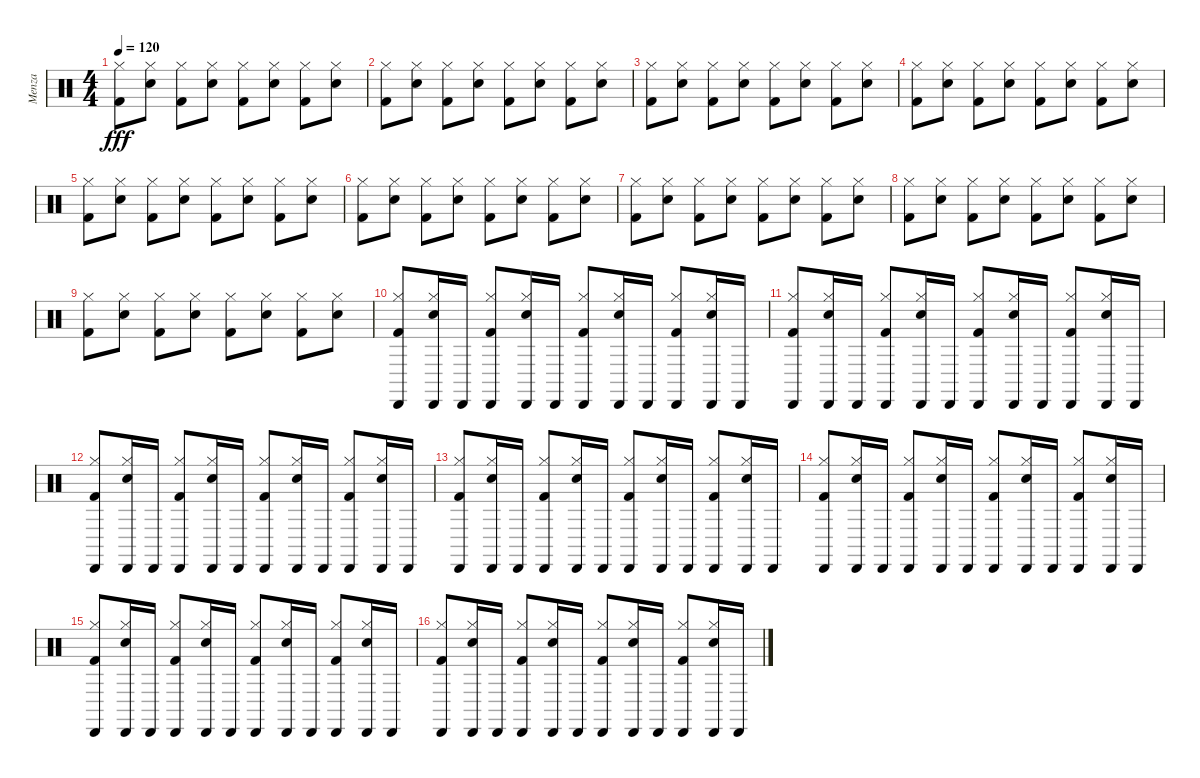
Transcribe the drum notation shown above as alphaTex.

\track ("Menza" "Menza") {instrument percussion}
\staff {score}
\articulation defaults
\ts (4 4)
\tempo 120
\clef neutral
\ks c
("Hi-Hat (closed)" "Kick (hit) 2").8{dy fff} ("Hi-Hat (closed)" "Snare (hit) 2").8 ("Hi-Hat (closed)" "Kick (hit) 2").8 ("Hi-Hat (closed)" "Snare (hit) 2").8 ("Hi-Hat (closed)" "Kick (hit) 2").8 ("Hi-Hat (closed)" "Snare (hit) 2").8 ("Hi-Hat (closed)" "Kick (hit) 2").8 ("Hi-Hat (closed)" "Snare (hit) 2").8 |
("Hi-Hat (closed)" "Kick (hit) 2").8 ("Hi-Hat (closed)" "Snare (hit) 2").8 ("Hi-Hat (closed)" "Kick (hit) 2").8 ("Hi-Hat (closed)" "Snare (hit) 2").8 ("Hi-Hat (closed)" "Kick (hit) 2").8 ("Hi-Hat (closed)" "Snare (hit) 2").8 ("Hi-Hat (closed)" "Kick (hit) 2").8 ("Hi-Hat (closed)" "Snare (hit) 2").8 |
("Hi-Hat (closed)" "Kick (hit) 2").8 ("Hi-Hat (closed)" "Snare (hit) 2").8 ("Hi-Hat (closed)" "Kick (hit) 2").8 ("Hi-Hat (closed)" "Snare (hit) 2").8 ("Hi-Hat (closed)" "Kick (hit) 2").8 ("Hi-Hat (closed)" "Snare (hit) 2").8 ("Hi-Hat (closed)" "Kick (hit) 2").8 ("Hi-Hat (closed)" "Snare (hit) 2").8 |
("Hi-Hat (closed)" "Kick (hit) 2").8 ("Hi-Hat (closed)" "Snare (hit) 2").8 ("Hi-Hat (closed)" "Kick (hit) 2").8 ("Hi-Hat (closed)" "Snare (hit) 2").8 ("Hi-Hat (closed)" "Kick (hit) 2").8 ("Hi-Hat (closed)" "Snare (hit) 2").8 ("Hi-Hat (closed)" "Kick (hit) 2").8 ("Hi-Hat (closed)" "Snare (hit) 2").8 |
("Hi-Hat (closed)" "Kick (hit) 2").8 ("Hi-Hat (closed)" "Snare (hit) 2").8 ("Hi-Hat (closed)" "Kick (hit) 2").8 ("Hi-Hat (closed)" "Snare (hit) 2").8 ("Hi-Hat (closed)" "Kick (hit) 2").8 ("Hi-Hat (closed)" "Snare (hit) 2").8 ("Hi-Hat (closed)" "Kick (hit) 2").8 ("Hi-Hat (closed)" "Snare (hit) 2").8 |
("Hi-Hat (closed)" "Kick (hit) 2").8 ("Hi-Hat (closed)" "Snare (hit) 2").8 ("Hi-Hat (closed)" "Kick (hit) 2").8 ("Hi-Hat (closed)" "Snare (hit) 2").8 ("Hi-Hat (closed)" "Kick (hit) 2").8 ("Hi-Hat (closed)" "Snare (hit) 2").8 ("Hi-Hat (closed)" "Kick (hit) 2").8 ("Hi-Hat (closed)" "Snare (hit) 2").8 |
("Hi-Hat (closed)" "Kick (hit) 2").8 ("Hi-Hat (closed)" "Snare (hit) 2").8 ("Hi-Hat (closed)" "Kick (hit) 2").8 ("Hi-Hat (closed)" "Snare (hit) 2").8 ("Hi-Hat (closed)" "Kick (hit) 2").8 ("Hi-Hat (closed)" "Snare (hit) 2").8 ("Hi-Hat (closed)" "Kick (hit) 2").8 ("Hi-Hat (closed)" "Snare (hit) 2").8 |
("Hi-Hat (closed)" "Kick (hit) 2").8 ("Hi-Hat (closed)" "Snare (hit) 2").8 ("Hi-Hat (closed)" "Kick (hit) 2").8 ("Hi-Hat (closed)" "Snare (hit) 2").8 ("Hi-Hat (closed)" "Kick (hit) 2").8 ("Hi-Hat (closed)" "Snare (hit) 2").8 ("Hi-Hat (closed)" "Kick (hit) 2").8 ("Hi-Hat (closed)" "Snare (hit) 2").8 |
("Hi-Hat (closed)" "Kick (hit) 2").8 ("Hi-Hat (closed)" "Snare (hit) 2").8 ("Hi-Hat (closed)" "Kick (hit) 2").8 ("Hi-Hat (closed)" "Snare (hit) 2").8 ("Hi-Hat (closed)" "Kick (hit) 2").8 ("Hi-Hat (closed)" "Snare (hit) 2").8 ("Hi-Hat (closed)" "Kick (hit) 2").8 ("Hi-Hat (closed)" "Snare (hit) 2").8 |
("Cabasa (hit)" "Hi-Hat (closed)" "Kick (hit) 2").8 ("Cabasa (hit)" "Hi-Hat (closed)" "Snare (hit) 2").16 "Cabasa (hit)".16 ("Cabasa (hit)" "Hi-Hat (closed)" "Kick (hit) 2").8 ("Cabasa (hit)" "Hi-Hat (closed)" "Snare (hit) 2").16 "Cabasa (hit)".16 ("Cabasa (hit)" "Hi-Hat (closed)" "Kick (hit) 2").8 ("Cabasa (hit)" "Hi-Hat (closed)" "Snare (hit) 2").16 "Cabasa (hit)".16 ("Cabasa (hit)" "Hi-Hat (closed)" "Kick (hit) 2").8 ("Cabasa (hit)" "Hi-Hat (closed)" "Snare (hit) 2").16 "Cabasa (hit)".16 |
("Cabasa (hit)" "Hi-Hat (closed)" "Kick (hit) 2").8 ("Cabasa (hit)" "Hi-Hat (closed)" "Snare (hit) 2").16 "Cabasa (hit)".16 ("Cabasa (hit)" "Hi-Hat (closed)" "Kick (hit) 2").8 ("Cabasa (hit)" "Hi-Hat (closed)" "Snare (hit) 2").16 "Cabasa (hit)".16 ("Cabasa (hit)" "Hi-Hat (closed)" "Kick (hit) 2").8 ("Cabasa (hit)" "Hi-Hat (closed)" "Snare (hit) 2").16 "Cabasa (hit)".16 ("Cabasa (hit)" "Hi-Hat (closed)" "Kick (hit) 2").8 ("Cabasa (hit)" "Hi-Hat (closed)" "Snare (hit) 2").16 "Cabasa (hit)".16 |
("Cabasa (hit)" "Hi-Hat (closed)" "Kick (hit) 2").8 ("Cabasa (hit)" "Hi-Hat (closed)" "Snare (hit) 2").16 "Cabasa (hit)".16 ("Cabasa (hit)" "Hi-Hat (closed)" "Kick (hit) 2").8 ("Cabasa (hit)" "Hi-Hat (closed)" "Snare (hit) 2").16 "Cabasa (hit)".16 ("Cabasa (hit)" "Hi-Hat (closed)" "Kick (hit) 2").8 ("Cabasa (hit)" "Hi-Hat (closed)" "Snare (hit) 2").16 "Cabasa (hit)".16 ("Cabasa (hit)" "Hi-Hat (closed)" "Kick (hit) 2").8 ("Cabasa (hit)" "Hi-Hat (closed)" "Snare (hit) 2").16 "Cabasa (hit)".16 |
("Cabasa (hit)" "Hi-Hat (closed)" "Kick (hit) 2").8 ("Cabasa (hit)" "Hi-Hat (closed)" "Snare (hit) 2").16 "Cabasa (hit)".16 ("Cabasa (hit)" "Hi-Hat (closed)" "Kick (hit) 2").8 ("Cabasa (hit)" "Hi-Hat (closed)" "Snare (hit) 2").16 "Cabasa (hit)".16 ("Cabasa (hit)" "Hi-Hat (closed)" "Kick (hit) 2").8 ("Cabasa (hit)" "Hi-Hat (closed)" "Snare (hit) 2").16 "Cabasa (hit)".16 ("Cabasa (hit)" "Hi-Hat (closed)" "Kick (hit) 2").8 ("Cabasa (hit)" "Hi-Hat (closed)" "Snare (hit) 2").16 "Cabasa (hit)".16 |
("Cabasa (hit)" "Hi-Hat (closed)" "Kick (hit) 2").8 ("Cabasa (hit)" "Hi-Hat (closed)" "Snare (hit) 2").16 "Cabasa (hit)".16 ("Cabasa (hit)" "Hi-Hat (closed)" "Kick (hit) 2").8 ("Cabasa (hit)" "Hi-Hat (closed)" "Snare (hit) 2").16 "Cabasa (hit)".16 ("Cabasa (hit)" "Hi-Hat (closed)" "Kick (hit) 2").8 ("Cabasa (hit)" "Hi-Hat (closed)" "Snare (hit) 2").16 "Cabasa (hit)".16 ("Cabasa (hit)" "Hi-Hat (closed)" "Kick (hit) 2").8 ("Cabasa (hit)" "Hi-Hat (closed)" "Snare (hit) 2").16 "Cabasa (hit)".16 |
("Cabasa (hit)" "Hi-Hat (closed)" "Kick (hit) 2").8 ("Cabasa (hit)" "Hi-Hat (closed)" "Snare (hit) 2").16 "Cabasa (hit)".16 ("Cabasa (hit)" "Hi-Hat (closed)" "Kick (hit) 2").8 ("Cabasa (hit)" "Hi-Hat (closed)" "Snare (hit) 2").16 "Cabasa (hit)".16 ("Cabasa (hit)" "Hi-Hat (closed)" "Kick (hit) 2").8 ("Cabasa (hit)" "Hi-Hat (closed)" "Snare (hit) 2").16 "Cabasa (hit)".16 ("Cabasa (hit)" "Hi-Hat (closed)" "Kick (hit) 2").8 ("Cabasa (hit)" "Hi-Hat (closed)" "Snare (hit) 2").16 "Cabasa (hit)".16 |
("Cabasa (hit)" "Hi-Hat (closed)" "Kick (hit) 2").8 ("Cabasa (hit)" "Hi-Hat (closed)" "Snare (hit) 2").16 "Cabasa (hit)".16 ("Cabasa (hit)" "Hi-Hat (closed)" "Kick (hit) 2").8 ("Cabasa (hit)" "Hi-Hat (closed)" "Snare (hit) 2").16 "Cabasa (hit)".16 ("Cabasa (hit)" "Hi-Hat (closed)" "Kick (hit) 2").8 ("Cabasa (hit)" "Hi-Hat (closed)" "Snare (hit) 2").16 "Cabasa (hit)".16 ("Cabasa (hit)" "Hi-Hat (closed)" "Kick (hit) 2").8 ("Cabasa (hit)" "Hi-Hat (closed)" "Snare (hit) 2").16 "Cabasa (hit)".16
